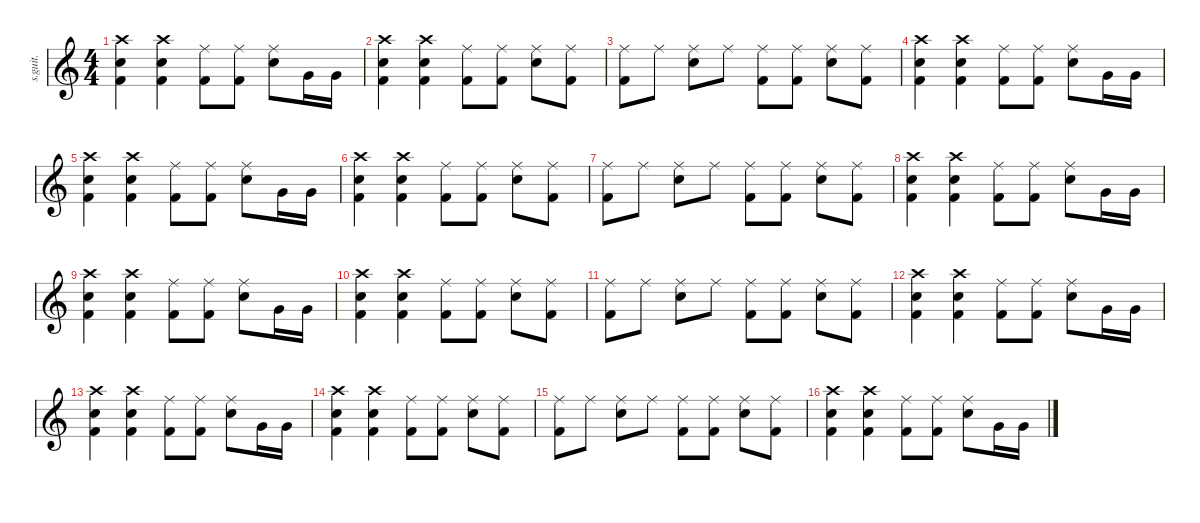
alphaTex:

\defaultSystemsLayout 4
\hideDynamics
\bracketExtendMode nobrackets
\track ("Bob Burns (Drums)" "s.guit.") {instrument percussion}
\staff {score}
\articulation defaults
\ts (4 4)
\tempo (150 hide)
\clef g2
\ks c
("Crash high (hit)" "Electric Snare (hit)" "Kick (hit) 2").4{lyrics (0 "") lyrics (1 "") lyrics (2 "") lyrics (3 "") lyrics (4 "") dy f} ("Crash high (hit)" "Electric Snare (hit)" "Kick (hit) 2").4{lyrics (0 "") lyrics (1 "") lyrics (2 "") lyrics (3 "") lyrics (4 "")} ("Ride (middle)" "Kick (hit) 2").8{lyrics (0 "") lyrics (1 "") lyrics (2 "") lyrics (3 "") lyrics (4 "")} ("Ride (middle)" "Kick (hit) 2").8{lyrics (0 "") lyrics (1 "") lyrics (2 "") lyrics (3 "") lyrics (4 "")} ("Ride (middle)" "Electric Snare (hit)").8{lyrics (0 "") lyrics (1 "") lyrics (2 "") lyrics (3 "") lyrics (4 "")} "Very Low Tom (hit)".16{lyrics (0 "") lyrics (1 "") lyrics (2 "") lyrics (3 "") lyrics (4 "")} "Very Low Tom (hit)".16{lyrics (0 "") lyrics (1 "") lyrics (2 "") lyrics (3 "") lyrics (4 "")} |
("Crash high (hit)" "Electric Snare (hit)" "Kick (hit) 2").4{lyrics (0 "") lyrics (1 "") lyrics (2 "") lyrics (3 "") lyrics (4 "")} ("Crash high (hit)" "Electric Snare (hit)" "Kick (hit) 2").4{lyrics (0 "") lyrics (1 "") lyrics (2 "") lyrics (3 "") lyrics (4 "")} ("Ride (middle)" "Kick (hit) 2").8{lyrics (0 "") lyrics (1 "") lyrics (2 "") lyrics (3 "") lyrics (4 "")} ("Ride (middle)" "Kick (hit) 2").8{lyrics (0 "") lyrics (1 "") lyrics (2 "") lyrics (3 "") lyrics (4 "")} ("Ride (middle)" "Electric Snare (hit)").8{lyrics (0 "") lyrics (1 "") lyrics (2 "") lyrics (3 "") lyrics (4 "")} ("Ride (middle)" "Kick (hit) 2").8{lyrics (0 "") lyrics (1 "") lyrics (2 "") lyrics (3 "") lyrics (4 "")} |
("Ride (middle)" "Kick (hit) 2").8{lyrics (0 "") lyrics (1 "") lyrics (2 "") lyrics (3 "") lyrics (4 "")} "Ride (middle)".8{lyrics (0 "") lyrics (1 "") lyrics (2 "") lyrics (3 "") lyrics (4 "")} ("Ride (middle)" "Electric Snare (hit)").8{lyrics (0 "") lyrics (1 "") lyrics (2 "") lyrics (3 "") lyrics (4 "")} "Ride (middle)".8{lyrics (0 "") lyrics (1 "") lyrics (2 "") lyrics (3 "") lyrics (4 "")} ("Ride (middle)" "Kick (hit) 2").8{lyrics (0 "") lyrics (1 "") lyrics (2 "") lyrics (3 "") lyrics (4 "")} ("Ride (middle)" "Kick (hit) 2").8{lyrics (0 "") lyrics (1 "") lyrics (2 "") lyrics (3 "") lyrics (4 "")} ("Ride (middle)" "Electric Snare (hit)").8{lyrics (0 "") lyrics (1 "") lyrics (2 "") lyrics (3 "") lyrics (4 "")} ("Ride (middle)" "Kick (hit) 2").8{lyrics (0 "") lyrics (1 "") lyrics (2 "") lyrics (3 "") lyrics (4 "")} |
("Crash high (hit)" "Electric Snare (hit)" "Kick (hit) 2").4{lyrics (0 "") lyrics (1 "") lyrics (2 "") lyrics (3 "") lyrics (4 "")} ("Crash high (hit)" "Electric Snare (hit)" "Kick (hit) 2").4{lyrics (0 "") lyrics (1 "") lyrics (2 "") lyrics (3 "") lyrics (4 "")} ("Ride (middle)" "Kick (hit) 2").8{lyrics (0 "") lyrics (1 "") lyrics (2 "") lyrics (3 "") lyrics (4 "")} ("Ride (middle)" "Kick (hit) 2").8{lyrics (0 "") lyrics (1 "") lyrics (2 "") lyrics (3 "") lyrics (4 "")} ("Ride (middle)" "Electric Snare (hit)").8{lyrics (0 "") lyrics (1 "") lyrics (2 "") lyrics (3 "") lyrics (4 "")} "Very Low Tom (hit)".16{lyrics (0 "") lyrics (1 "") lyrics (2 "") lyrics (3 "") lyrics (4 "")} "Very Low Tom (hit)".16{lyrics (0 "") lyrics (1 "") lyrics (2 "") lyrics (3 "") lyrics (4 "")} |
("Crash high (hit)" "Electric Snare (hit)" "Kick (hit) 2").4{lyrics (0 "") lyrics (1 "") lyrics (2 "") lyrics (3 "") lyrics (4 "")} ("Crash high (hit)" "Electric Snare (hit)" "Kick (hit) 2").4{lyrics (0 "") lyrics (1 "") lyrics (2 "") lyrics (3 "") lyrics (4 "")} ("Ride (middle)" "Kick (hit) 2").8{lyrics (0 "") lyrics (1 "") lyrics (2 "") lyrics (3 "") lyrics (4 "")} ("Ride (middle)" "Kick (hit) 2").8{lyrics (0 "") lyrics (1 "") lyrics (2 "") lyrics (3 "") lyrics (4 "")} ("Ride (middle)" "Electric Snare (hit)").8{lyrics (0 "") lyrics (1 "") lyrics (2 "") lyrics (3 "") lyrics (4 "")} "Very Low Tom (hit)".16{lyrics (0 "") lyrics (1 "") lyrics (2 "") lyrics (3 "") lyrics (4 "")} "Very Low Tom (hit)".16{lyrics (0 "") lyrics (1 "") lyrics (2 "") lyrics (3 "") lyrics (4 "")} |
("Crash high (hit)" "Electric Snare (hit)" "Kick (hit) 2").4{lyrics (0 "") lyrics (1 "") lyrics (2 "") lyrics (3 "") lyrics (4 "")} ("Crash high (hit)" "Electric Snare (hit)" "Kick (hit) 2").4{lyrics (0 "") lyrics (1 "") lyrics (2 "") lyrics (3 "") lyrics (4 "")} ("Ride (middle)" "Kick (hit) 2").8{lyrics (0 "") lyrics (1 "") lyrics (2 "") lyrics (3 "") lyrics (4 "")} ("Ride (middle)" "Kick (hit) 2").8{lyrics (0 "") lyrics (1 "") lyrics (2 "") lyrics (3 "") lyrics (4 "")} ("Ride (middle)" "Electric Snare (hit)").8{lyrics (0 "") lyrics (1 "") lyrics (2 "") lyrics (3 "") lyrics (4 "")} ("Ride (middle)" "Kick (hit) 2").8{lyrics (0 "") lyrics (1 "") lyrics (2 "") lyrics (3 "") lyrics (4 "")} |
("Ride (middle)" "Kick (hit) 2").8{lyrics (0 "") lyrics (1 "") lyrics (2 "") lyrics (3 "") lyrics (4 "")} "Ride (middle)".8{lyrics (0 "") lyrics (1 "") lyrics (2 "") lyrics (3 "") lyrics (4 "")} ("Ride (middle)" "Electric Snare (hit)").8{lyrics (0 "") lyrics (1 "") lyrics (2 "") lyrics (3 "") lyrics (4 "")} "Ride (middle)".8{lyrics (0 "") lyrics (1 "") lyrics (2 "") lyrics (3 "") lyrics (4 "")} ("Ride (middle)" "Kick (hit) 2").8{lyrics (0 "") lyrics (1 "") lyrics (2 "") lyrics (3 "") lyrics (4 "")} ("Ride (middle)" "Kick (hit) 2").8{lyrics (0 "") lyrics (1 "") lyrics (2 "") lyrics (3 "") lyrics (4 "")} ("Ride (middle)" "Electric Snare (hit)").8{lyrics (0 "") lyrics (1 "") lyrics (2 "") lyrics (3 "") lyrics (4 "")} ("Ride (middle)" "Kick (hit) 2").8{lyrics (0 "") lyrics (1 "") lyrics (2 "") lyrics (3 "") lyrics (4 "")} |
("Crash high (hit)" "Electric Snare (hit)" "Kick (hit) 2").4{lyrics (0 "") lyrics (1 "") lyrics (2 "") lyrics (3 "") lyrics (4 "")} ("Crash high (hit)" "Electric Snare (hit)" "Kick (hit) 2").4{lyrics (0 "") lyrics (1 "") lyrics (2 "") lyrics (3 "") lyrics (4 "")} ("Ride (middle)" "Kick (hit) 2").8{lyrics (0 "") lyrics (1 "") lyrics (2 "") lyrics (3 "") lyrics (4 "")} ("Ride (middle)" "Kick (hit) 2").8{lyrics (0 "") lyrics (1 "") lyrics (2 "") lyrics (3 "") lyrics (4 "")} ("Ride (middle)" "Electric Snare (hit)").8{lyrics (0 "") lyrics (1 "") lyrics (2 "") lyrics (3 "") lyrics (4 "")} "Very Low Tom (hit)".16{lyrics (0 "") lyrics (1 "") lyrics (2 "") lyrics (3 "") lyrics (4 "")} "Very Low Tom (hit)".16{lyrics (0 "") lyrics (1 "") lyrics (2 "") lyrics (3 "") lyrics (4 "")} |
("Crash high (hit)" "Electric Snare (hit)" "Kick (hit) 2").4{lyrics (0 "") lyrics (1 "") lyrics (2 "") lyrics (3 "") lyrics (4 "")} ("Crash high (hit)" "Electric Snare (hit)" "Kick (hit) 2").4{lyrics (0 "") lyrics (1 "") lyrics (2 "") lyrics (3 "") lyrics (4 "")} ("Ride (middle)" "Kick (hit) 2").8{lyrics (0 "") lyrics (1 "") lyrics (2 "") lyrics (3 "") lyrics (4 "")} ("Ride (middle)" "Kick (hit) 2").8{lyrics (0 "") lyrics (1 "") lyrics (2 "") lyrics (3 "") lyrics (4 "")} ("Ride (middle)" "Electric Snare (hit)").8{lyrics (0 "") lyrics (1 "") lyrics (2 "") lyrics (3 "") lyrics (4 "")} "Very Low Tom (hit)".16{lyrics (0 "") lyrics (1 "") lyrics (2 "") lyrics (3 "") lyrics (4 "")} "Very Low Tom (hit)".16{lyrics (0 "") lyrics (1 "") lyrics (2 "") lyrics (3 "") lyrics (4 "")} |
("Crash high (hit)" "Electric Snare (hit)" "Kick (hit) 2").4{lyrics (0 "") lyrics (1 "") lyrics (2 "") lyrics (3 "") lyrics (4 "")} ("Crash high (hit)" "Electric Snare (hit)" "Kick (hit) 2").4{lyrics (0 "") lyrics (1 "") lyrics (2 "") lyrics (3 "") lyrics (4 "")} ("Ride (middle)" "Kick (hit) 2").8{lyrics (0 "") lyrics (1 "") lyrics (2 "") lyrics (3 "") lyrics (4 "")} ("Ride (middle)" "Kick (hit) 2").8{lyrics (0 "") lyrics (1 "") lyrics (2 "") lyrics (3 "") lyrics (4 "")} ("Ride (middle)" "Electric Snare (hit)").8{lyrics (0 "") lyrics (1 "") lyrics (2 "") lyrics (3 "") lyrics (4 "")} ("Ride (middle)" "Kick (hit) 2").8{lyrics (0 "") lyrics (1 "") lyrics (2 "") lyrics (3 "") lyrics (4 "")} |
("Ride (middle)" "Kick (hit) 2").8{lyrics (0 "") lyrics (1 "") lyrics (2 "") lyrics (3 "") lyrics (4 "")} "Ride (middle)".8{lyrics (0 "") lyrics (1 "") lyrics (2 "") lyrics (3 "") lyrics (4 "")} ("Ride (middle)" "Electric Snare (hit)").8{lyrics (0 "") lyrics (1 "") lyrics (2 "") lyrics (3 "") lyrics (4 "")} "Ride (middle)".8{lyrics (0 "") lyrics (1 "") lyrics (2 "") lyrics (3 "") lyrics (4 "")} ("Ride (middle)" "Kick (hit) 2").8{lyrics (0 "") lyrics (1 "") lyrics (2 "") lyrics (3 "") lyrics (4 "")} ("Ride (middle)" "Kick (hit) 2").8{lyrics (0 "") lyrics (1 "") lyrics (2 "") lyrics (3 "") lyrics (4 "")} ("Ride (middle)" "Electric Snare (hit)").8{lyrics (0 "") lyrics (1 "") lyrics (2 "") lyrics (3 "") lyrics (4 "")} ("Ride (middle)" "Kick (hit) 2").8{lyrics (0 "") lyrics (1 "") lyrics (2 "") lyrics (3 "") lyrics (4 "")} |
("Crash high (hit)" "Electric Snare (hit)" "Kick (hit) 2").4{lyrics (0 "") lyrics (1 "") lyrics (2 "") lyrics (3 "") lyrics (4 "")} ("Crash high (hit)" "Electric Snare (hit)" "Kick (hit) 2").4{lyrics (0 "") lyrics (1 "") lyrics (2 "") lyrics (3 "") lyrics (4 "")} ("Ride (middle)" "Kick (hit) 2").8{lyrics (0 "") lyrics (1 "") lyrics (2 "") lyrics (3 "") lyrics (4 "")} ("Ride (middle)" "Kick (hit) 2").8{lyrics (0 "") lyrics (1 "") lyrics (2 "") lyrics (3 "") lyrics (4 "")} ("Ride (middle)" "Electric Snare (hit)").8{lyrics (0 "") lyrics (1 "") lyrics (2 "") lyrics (3 "") lyrics (4 "")} "Very Low Tom (hit)".16{lyrics (0 "") lyrics (1 "") lyrics (2 "") lyrics (3 "") lyrics (4 "")} "Very Low Tom (hit)".16{lyrics (0 "") lyrics (1 "") lyrics (2 "") lyrics (3 "") lyrics (4 "")} |
("Crash high (hit)" "Electric Snare (hit)" "Kick (hit) 2").4{lyrics (0 "") lyrics (1 "") lyrics (2 "") lyrics (3 "") lyrics (4 "")} ("Crash high (hit)" "Electric Snare (hit)" "Kick (hit) 2").4{lyrics (0 "") lyrics (1 "") lyrics (2 "") lyrics (3 "") lyrics (4 "")} ("Ride (middle)" "Kick (hit) 2").8{lyrics (0 "") lyrics (1 "") lyrics (2 "") lyrics (3 "") lyrics (4 "")} ("Ride (middle)" "Kick (hit) 2").8{lyrics (0 "") lyrics (1 "") lyrics (2 "") lyrics (3 "") lyrics (4 "")} ("Ride (middle)" "Electric Snare (hit)").8{lyrics (0 "") lyrics (1 "") lyrics (2 "") lyrics (3 "") lyrics (4 "")} "Very Low Tom (hit)".16{lyrics (0 "") lyrics (1 "") lyrics (2 "") lyrics (3 "") lyrics (4 "")} "Very Low Tom (hit)".16{lyrics (0 "") lyrics (1 "") lyrics (2 "") lyrics (3 "") lyrics (4 "")} |
("Crash high (hit)" "Electric Snare (hit)" "Kick (hit) 2").4{lyrics (0 "") lyrics (1 "") lyrics (2 "") lyrics (3 "") lyrics (4 "")} ("Crash high (hit)" "Electric Snare (hit)" "Kick (hit) 2").4{lyrics (0 "") lyrics (1 "") lyrics (2 "") lyrics (3 "") lyrics (4 "")} ("Ride (middle)" "Kick (hit) 2").8{lyrics (0 "") lyrics (1 "") lyrics (2 "") lyrics (3 "") lyrics (4 "")} ("Ride (middle)" "Kick (hit) 2").8{lyrics (0 "") lyrics (1 "") lyrics (2 "") lyrics (3 "") lyrics (4 "")} ("Ride (middle)" "Electric Snare (hit)").8{lyrics (0 "") lyrics (1 "") lyrics (2 "") lyrics (3 "") lyrics (4 "")} ("Ride (middle)" "Kick (hit) 2").8{lyrics (0 "") lyrics (1 "") lyrics (2 "") lyrics (3 "") lyrics (4 "")} |
("Ride (middle)" "Kick (hit) 2").8{lyrics (0 "") lyrics (1 "") lyrics (2 "") lyrics (3 "") lyrics (4 "")} "Ride (middle)".8{lyrics (0 "") lyrics (1 "") lyrics (2 "") lyrics (3 "") lyrics (4 "")} ("Ride (middle)" "Electric Snare (hit)").8{lyrics (0 "") lyrics (1 "") lyrics (2 "") lyrics (3 "") lyrics (4 "")} "Ride (middle)".8{lyrics (0 "") lyrics (1 "") lyrics (2 "") lyrics (3 "") lyrics (4 "")} ("Ride (middle)" "Kick (hit) 2").8{lyrics (0 "") lyrics (1 "") lyrics (2 "") lyrics (3 "") lyrics (4 "")} ("Ride (middle)" "Kick (hit) 2").8{lyrics (0 "") lyrics (1 "") lyrics (2 "") lyrics (3 "") lyrics (4 "")} ("Ride (middle)" "Electric Snare (hit)").8{lyrics (0 "") lyrics (1 "") lyrics (2 "") lyrics (3 "") lyrics (4 "")} ("Ride (middle)" "Kick (hit) 2").8{lyrics (0 "") lyrics (1 "") lyrics (2 "") lyrics (3 "") lyrics (4 "")} |
("Crash high (hit)" "Electric Snare (hit)" "Kick (hit) 2").4{lyrics (0 "") lyrics (1 "") lyrics (2 "") lyrics (3 "") lyrics (4 "")} ("Crash high (hit)" "Electric Snare (hit)" "Kick (hit) 2").4{lyrics (0 "") lyrics (1 "") lyrics (2 "") lyrics (3 "") lyrics (4 "")} ("Ride (middle)" "Kick (hit) 2").8{lyrics (0 "") lyrics (1 "") lyrics (2 "") lyrics (3 "") lyrics (4 "")} ("Ride (middle)" "Kick (hit) 2").8{lyrics (0 "") lyrics (1 "") lyrics (2 "") lyrics (3 "") lyrics (4 "")} ("Ride (middle)" "Electric Snare (hit)").8{lyrics (0 "") lyrics (1 "") lyrics (2 "") lyrics (3 "") lyrics (4 "")} "Very Low Tom (hit)".16{lyrics (0 "") lyrics (1 "") lyrics (2 "") lyrics (3 "") lyrics (4 "")} "Very Low Tom (hit)".16{lyrics (0 "") lyrics (1 "") lyrics (2 "") lyrics (3 "") lyrics (4 "")}
